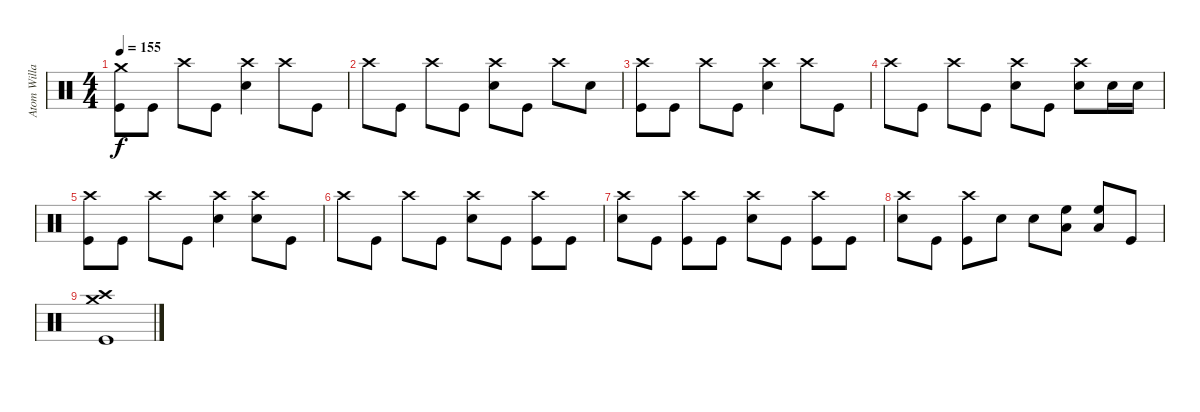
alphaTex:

\track ("Atom Willard Drums" "Atom Willa") {instrument percussion}
\staff {score}
\articulation defaults
\ts (4 4)
\tempo 155
\clef neutral
\ks c
("Crash medium (hit)" "Kick (hit)").8{dy f} "Kick (hit)".8 "Crash high (hit)".8 "Kick (hit)".8 ("Electric Snare (hit)" "Crash high (hit)").4 "Crash high (hit)".8 "Kick (hit)".8 |
"Crash high (hit)".8 "Kick (hit)".8 "Crash high (hit)".8 "Kick (hit)".8 ("Crash high (hit)" "Electric Snare (hit)").8 "Kick (hit)".8 "Crash high (hit)".8 "Electric Snare (hit)".8 |
("Kick (hit)" "Crash high (hit)").8 "Kick (hit)".8 "Crash high (hit)".8 "Kick (hit)".8 ("Electric Snare (hit)" "Crash high (hit)").4 "Crash high (hit)".8 "Kick (hit)".8 |
"Crash high (hit)".8 "Kick (hit)".8 "Crash high (hit)".8 "Kick (hit)".8 ("Crash high (hit)" "Electric Snare (hit)").8 "Kick (hit)".8 ("Electric Snare (hit)" "Crash high (hit)").8 "Electric Snare (hit)".16 "Electric Snare (hit)".16 |
("Kick (hit)" "Crash high (hit)").8 "Kick (hit)".8 "Crash high (hit)".8 "Kick (hit)".8 ("Electric Snare (hit)" "Crash high (hit)").4 ("Crash high (hit)" "Electric Snare (hit)").8 "Kick (hit)".8 |
"Crash high (hit)".8 "Kick (hit)".8 "Crash high (hit)".8 "Kick (hit)".8 ("Electric Snare (hit)" "Crash high (hit)").8 "Kick (hit)".8 ("Crash high (hit)" "Kick (hit)").8 "Kick (hit)".8 |
("Electric Snare (hit)" "Crash high (hit)").8 "Kick (hit)".8 ("Kick (hit)" "Crash high (hit)").8 "Kick (hit)".8 ("Crash high (hit)" "Electric Snare (hit)").8 "Kick (hit)".8 ("Kick (hit)" "Crash high (hit)").8 "Kick (hit)".8 |
("Electric Snare (hit)" "Crash high (hit)").8 "Kick (hit)".8 ("Kick (hit)" "Crash high (hit)").8 "Electric Snare (hit)".8 "Electric Snare (hit)".8 ("Low Tom (hit)" "High Floor Tom (hit)").8 ("Low Tom (hit)" "High Floor Tom (hit)").8 "Kick (hit)".8 |
("Kick (hit)" "Crash high (hit)" "Crash medium (hit)").1
